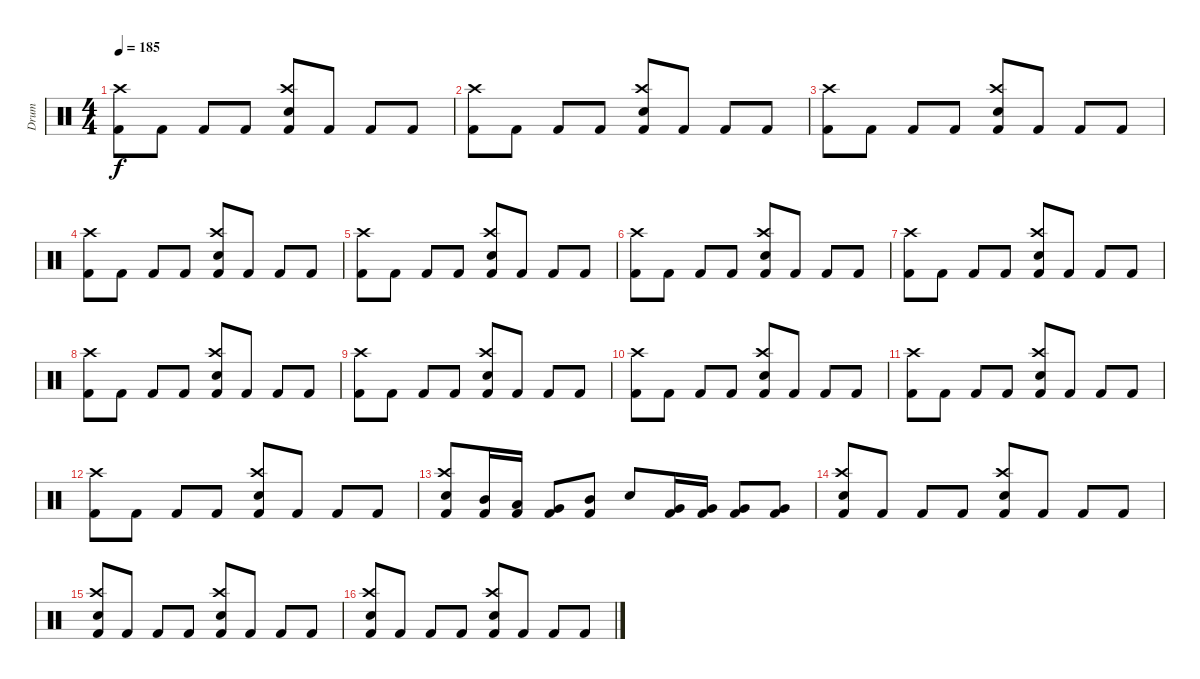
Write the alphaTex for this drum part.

\track ("Drum" "Drum") {instrument percussion}
\staff {score}
\articulation defaults
\ts (4 4)
\tempo 185
\clef neutral
\ks c
("Kick (hit) 2" "Crash high (hit)").8{dy f} "Kick (hit) 2".8 "Kick (hit) 2".8 "Kick (hit) 2".8 ("Kick (hit) 2" "Crash high (hit)" "Electric Snare (hit)").8 "Kick (hit) 2".8 "Kick (hit) 2".8 "Kick (hit) 2".8 |
("Kick (hit) 2" "Crash high (hit)").8 "Kick (hit) 2".8 "Kick (hit) 2".8 "Kick (hit) 2".8 ("Kick (hit) 2" "Crash high (hit)" "Electric Snare (hit)").8 "Kick (hit) 2".8 "Kick (hit) 2".8 "Kick (hit) 2".8 |
("Kick (hit) 2" "Crash high (hit)").8 "Kick (hit) 2".8 "Kick (hit) 2".8 "Kick (hit) 2".8 ("Kick (hit) 2" "Crash high (hit)" "Electric Snare (hit)").8 "Kick (hit) 2".8 "Kick (hit) 2".8 "Kick (hit) 2".8 |
("Kick (hit) 2" "Crash high (hit)").8 "Kick (hit) 2".8 "Kick (hit) 2".8 "Kick (hit) 2".8 ("Kick (hit) 2" "Crash high (hit)" "Electric Snare (hit)").8 "Kick (hit) 2".8 "Kick (hit) 2".8 "Kick (hit) 2".8 |
("Kick (hit) 2" "Crash high (hit)").8 "Kick (hit) 2".8 "Kick (hit) 2".8 "Kick (hit) 2".8 ("Kick (hit) 2" "Crash high (hit)" "Electric Snare (hit)").8 "Kick (hit) 2".8 "Kick (hit) 2".8 "Kick (hit) 2".8 |
("Kick (hit) 2" "Crash high (hit)").8 "Kick (hit) 2".8 "Kick (hit) 2".8 "Kick (hit) 2".8 ("Kick (hit) 2" "Crash high (hit)" "Electric Snare (hit)").8 "Kick (hit) 2".8 "Kick (hit) 2".8 "Kick (hit) 2".8 |
("Kick (hit) 2" "Crash high (hit)").8 "Kick (hit) 2".8 "Kick (hit) 2".8 "Kick (hit) 2".8 ("Kick (hit) 2" "Crash high (hit)" "Electric Snare (hit)").8 "Kick (hit) 2".8 "Kick (hit) 2".8 "Kick (hit) 2".8 |
("Kick (hit) 2" "Crash high (hit)").8 "Kick (hit) 2".8 "Kick (hit) 2".8 "Kick (hit) 2".8 ("Kick (hit) 2" "Crash high (hit)" "Electric Snare (hit)").8 "Kick (hit) 2".8 "Kick (hit) 2".8 "Kick (hit) 2".8 |
("Kick (hit) 2" "Crash high (hit)").8 "Kick (hit) 2".8 "Kick (hit) 2".8 "Kick (hit) 2".8 ("Kick (hit) 2" "Crash high (hit)" "Electric Snare (hit)").8 "Kick (hit) 2".8 "Kick (hit) 2".8 "Kick (hit) 2".8 |
("Kick (hit) 2" "Crash high (hit)").8 "Kick (hit) 2".8 "Kick (hit) 2".8 "Kick (hit) 2".8 ("Kick (hit) 2" "Crash high (hit)" "Electric Snare (hit)").8 "Kick (hit) 2".8 "Kick (hit) 2".8 "Kick (hit) 2".8 |
("Kick (hit) 2" "Crash high (hit)").8 "Kick (hit) 2".8 "Kick (hit) 2".8 "Kick (hit) 2".8 ("Kick (hit) 2" "Crash high (hit)" "Electric Snare (hit)").8 "Kick (hit) 2".8 "Kick (hit) 2".8 "Kick (hit) 2".8 |
("Kick (hit) 2" "Crash high (hit)").8 "Kick (hit) 2".8 "Kick (hit) 2".8 "Kick (hit) 2".8 ("Kick (hit) 2" "Crash high (hit)" "Electric Snare (hit)").8 "Kick (hit) 2".8 "Kick (hit) 2".8 "Kick (hit) 2".8 |
("Electric Snare (hit)" "Crash high (hit)" "Kick (hit) 2").8 ("Mid Tom (hit)" "Kick (hit) 2").16 ("Low Tom (hit)" "Kick (hit) 2").16 ("Very Low Tom (hit)" "Kick (hit) 2").8 ("Mid Tom (hit)" "Kick (hit) 2").8 "Electric Snare (hit)".8 ("Very Low Tom (hit)" "Kick (hit) 2").16 ("Very Low Tom (hit)" "Kick (hit) 2").16 ("Very Low Tom (hit)" "Kick (hit) 2").8 ("Very Low Tom (hit)" "Kick (hit) 2").8 |
("Kick (hit) 2" "Crash high (hit)" "Electric Snare (hit)").8 "Kick (hit) 2".8 "Kick (hit) 2".8 "Kick (hit) 2".8 ("Kick (hit) 2" "Crash high (hit)" "Electric Snare (hit)").8 "Kick (hit) 2".8 "Kick (hit) 2".8 "Kick (hit) 2".8 |
("Kick (hit) 2" "Crash high (hit)" "Electric Snare (hit)").8 "Kick (hit) 2".8 "Kick (hit) 2".8 "Kick (hit) 2".8 ("Kick (hit) 2" "Crash high (hit)" "Electric Snare (hit)").8 "Kick (hit) 2".8 "Kick (hit) 2".8 "Kick (hit) 2".8 |
("Kick (hit) 2" "Crash high (hit)" "Electric Snare (hit)").8 "Kick (hit) 2".8 "Kick (hit) 2".8 "Kick (hit) 2".8 ("Kick (hit) 2" "Crash high (hit)" "Electric Snare (hit)").8 "Kick (hit) 2".8 "Kick (hit) 2".8 "Kick (hit) 2".8
